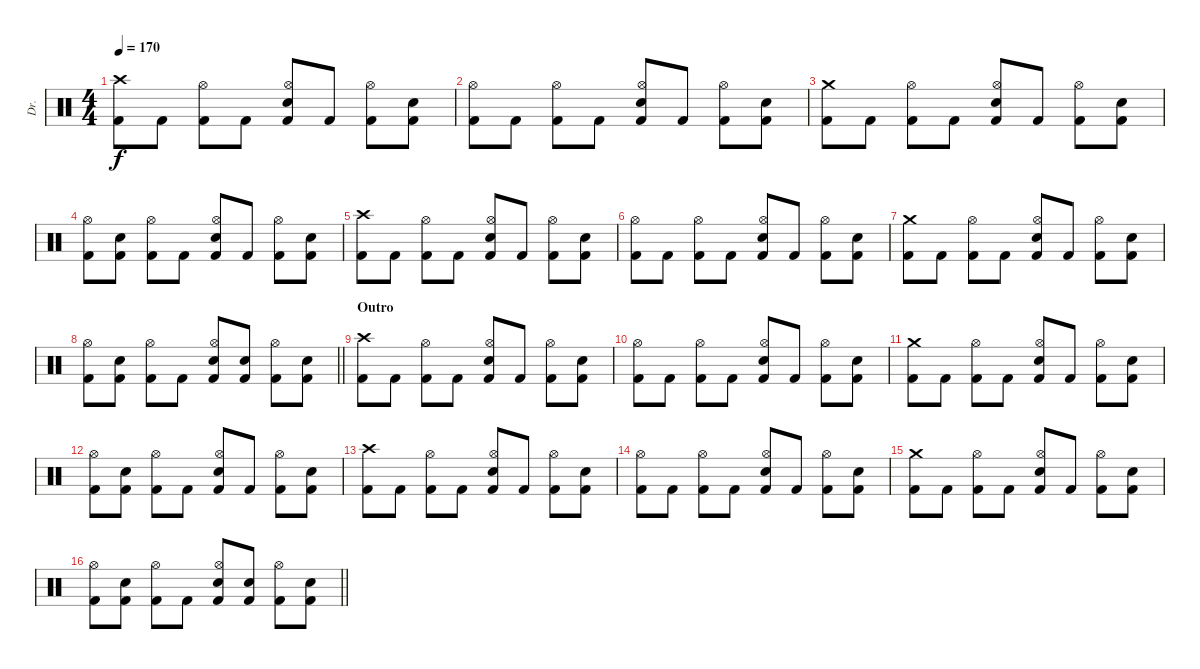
\track ("Dr." "Dr.") {instrument percussion}
\staff {score}
\articulation defaults
\ts (4 4)
\tempo 170
\clef neutral
\ks c
("Crash high (hit)" "Kick (hit) 2").8{dy f} "Kick (hit) 2".8 ("Hi-Hat (open)" "Kick (hit) 2").8 "Kick (hit) 2".8 ("Hi-Hat (open)" "Electric Snare (hit)" "Kick (hit) 2").8 "Kick (hit) 2".8 ("Hi-Hat (open)" "Kick (hit) 2").8 ("Electric Snare (hit)" "Kick (hit) 2").8 |
("Hi-Hat (open)" "Kick (hit) 2").8 "Kick (hit) 2".8 ("Hi-Hat (open)" "Kick (hit) 2").8 "Kick (hit) 2".8 ("Hi-Hat (open)" "Electric Snare (hit)" "Kick (hit) 2").8 "Kick (hit) 2".8 ("Hi-Hat (open)" "Kick (hit) 2").8 ("Electric Snare (hit)" "Kick (hit) 2").8 |
("Crash medium (hit)" "Kick (hit) 2").8 "Kick (hit) 2".8 ("Hi-Hat (open)" "Kick (hit) 2").8 "Kick (hit) 2".8 ("Hi-Hat (open)" "Electric Snare (hit)" "Kick (hit) 2").8 "Kick (hit) 2".8 ("Hi-Hat (open)" "Kick (hit) 2").8 ("Electric Snare (hit)" "Kick (hit) 2").8 |
("Hi-Hat (open)" "Kick (hit) 2").8 ("Electric Snare (hit)" "Kick (hit) 2").8 ("Hi-Hat (open)" "Kick (hit) 2").8 "Kick (hit) 2".8 ("Hi-Hat (open)" "Electric Snare (hit)" "Kick (hit) 2").8 "Kick (hit) 2".8 ("Hi-Hat (open)" "Kick (hit) 2").8 ("Electric Snare (hit)" "Kick (hit) 2").8 |
("Crash high (hit)" "Kick (hit) 2").8 "Kick (hit) 2".8 ("Hi-Hat (open)" "Kick (hit) 2").8 "Kick (hit) 2".8 ("Hi-Hat (open)" "Electric Snare (hit)" "Kick (hit) 2").8 "Kick (hit) 2".8 ("Hi-Hat (open)" "Kick (hit) 2").8 ("Electric Snare (hit)" "Kick (hit) 2").8 |
("Hi-Hat (open)" "Kick (hit) 2").8 "Kick (hit) 2".8 ("Hi-Hat (open)" "Kick (hit) 2").8 "Kick (hit) 2".8 ("Hi-Hat (open)" "Electric Snare (hit)" "Kick (hit) 2").8 "Kick (hit) 2".8 ("Hi-Hat (open)" "Kick (hit) 2").8 ("Electric Snare (hit)" "Kick (hit) 2").8 |
("Crash medium (hit)" "Kick (hit) 2").8 "Kick (hit) 2".8 ("Hi-Hat (open)" "Kick (hit) 2").8 "Kick (hit) 2".8 ("Hi-Hat (open)" "Electric Snare (hit)" "Kick (hit) 2").8 "Kick (hit) 2".8 ("Hi-Hat (open)" "Kick (hit) 2").8 ("Electric Snare (hit)" "Kick (hit) 2").8 |
\barLineRight lightlight
("Hi-Hat (open)" "Kick (hit) 2").8 ("Electric Snare (hit)" "Kick (hit) 2").8 ("Hi-Hat (open)" "Kick (hit) 2").8 "Kick (hit) 2".8 ("Hi-Hat (open)" "Electric Snare (hit)" "Kick (hit) 2").8 ("Electric Snare (hit)" "Kick (hit) 2").8 ("Hi-Hat (open)" "Kick (hit) 2").8 ("Electric Snare (hit)" "Kick (hit) 2").8 |
\section ("" "Outro")
("Crash high (hit)" "Kick (hit) 2").8 "Kick (hit) 2".8 ("Hi-Hat (open)" "Kick (hit) 2").8 "Kick (hit) 2".8 ("Hi-Hat (open)" "Electric Snare (hit)" "Kick (hit) 2").8 "Kick (hit) 2".8 ("Hi-Hat (open)" "Kick (hit) 2").8 ("Electric Snare (hit)" "Kick (hit) 2").8 |
("Hi-Hat (open)" "Kick (hit) 2").8 "Kick (hit) 2".8 ("Hi-Hat (open)" "Kick (hit) 2").8 "Kick (hit) 2".8 ("Hi-Hat (open)" "Electric Snare (hit)" "Kick (hit) 2").8 "Kick (hit) 2".8 ("Hi-Hat (open)" "Kick (hit) 2").8 ("Electric Snare (hit)" "Kick (hit) 2").8 |
("Crash medium (hit)" "Kick (hit) 2").8 "Kick (hit) 2".8 ("Hi-Hat (open)" "Kick (hit) 2").8 "Kick (hit) 2".8 ("Hi-Hat (open)" "Electric Snare (hit)" "Kick (hit) 2").8 "Kick (hit) 2".8 ("Hi-Hat (open)" "Kick (hit) 2").8 ("Electric Snare (hit)" "Kick (hit) 2").8 |
("Hi-Hat (open)" "Kick (hit) 2").8 ("Electric Snare (hit)" "Kick (hit) 2").8 ("Hi-Hat (open)" "Kick (hit) 2").8 "Kick (hit) 2".8 ("Hi-Hat (open)" "Electric Snare (hit)" "Kick (hit) 2").8 "Kick (hit) 2".8 ("Hi-Hat (open)" "Kick (hit) 2").8 ("Electric Snare (hit)" "Kick (hit) 2").8 |
("Crash high (hit)" "Kick (hit) 2").8 "Kick (hit) 2".8 ("Hi-Hat (open)" "Kick (hit) 2").8 "Kick (hit) 2".8 ("Hi-Hat (open)" "Electric Snare (hit)" "Kick (hit) 2").8 "Kick (hit) 2".8 ("Hi-Hat (open)" "Kick (hit) 2").8 ("Electric Snare (hit)" "Kick (hit) 2").8 |
("Hi-Hat (open)" "Kick (hit) 2").8 "Kick (hit) 2".8 ("Hi-Hat (open)" "Kick (hit) 2").8 "Kick (hit) 2".8 ("Hi-Hat (open)" "Electric Snare (hit)" "Kick (hit) 2").8 "Kick (hit) 2".8 ("Hi-Hat (open)" "Kick (hit) 2").8 ("Electric Snare (hit)" "Kick (hit) 2").8 |
("Crash medium (hit)" "Kick (hit) 2").8 "Kick (hit) 2".8 ("Hi-Hat (open)" "Kick (hit) 2").8 "Kick (hit) 2".8 ("Hi-Hat (open)" "Electric Snare (hit)" "Kick (hit) 2").8 "Kick (hit) 2".8 ("Hi-Hat (open)" "Kick (hit) 2").8 ("Electric Snare (hit)" "Kick (hit) 2").8 |
\barLineRight lightlight
("Hi-Hat (open)" "Kick (hit) 2").8 ("Electric Snare (hit)" "Kick (hit) 2").8 ("Hi-Hat (open)" "Kick (hit) 2").8 "Kick (hit) 2".8 ("Hi-Hat (open)" "Electric Snare (hit)" "Kick (hit) 2").8 ("Electric Snare (hit)" "Kick (hit) 2").8 ("Hi-Hat (open)" "Kick (hit) 2").8 ("Electric Snare (hit)" "Kick (hit) 2").8
